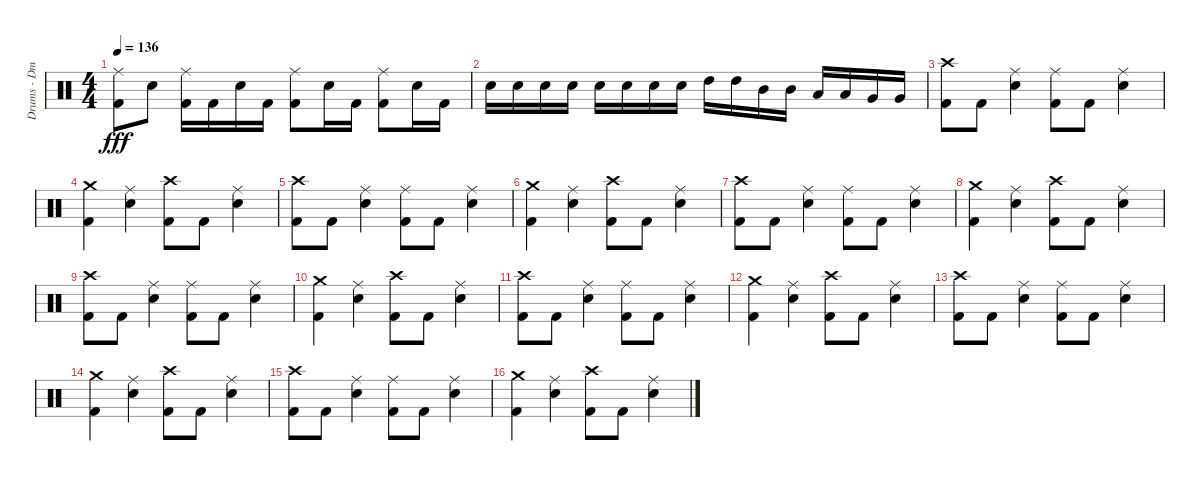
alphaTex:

\track ("Drums - Dmitriy Krivenkov" "Drums - Dm") {instrument percussion}
\staff {score}
\articulation defaults
\ts (4 4)
\tempo 136
\clef neutral
\ks c
("Ride (middle)" "Kick (hit) 2").8{dy fff} "Electric Snare (hit)".8 ("Ride (middle)" "Kick (hit) 2").16 "Kick (hit) 2".16 "Electric Snare (hit)".16 "Kick (hit) 2".16 ("Ride (middle)" "Kick (hit) 2").8 "Electric Snare (hit)".16 "Kick (hit) 2".16 ("Ride (middle)" "Kick (hit) 2").8 "Electric Snare (hit)".16 "Kick (hit) 2".16 |
"Electric Snare (hit)".16 "Electric Snare (hit)".16 "Electric Snare (hit)".16 "Electric Snare (hit)".16 "Electric Snare (hit)".16 "Electric Snare (hit)".16 "Electric Snare (hit)".16 "Electric Snare (hit)".16 "High Tom (hit)".16 "High Tom (hit)".16 "Mid Tom (hit)".16 "Mid Tom (hit)".16 "Low Tom (hit)".16 "Low Tom (hit)".16 "Very Low Tom (hit)".16 "Very Low Tom (hit)".16 |
("Crash high (hit)" "Kick (hit) 2").8 "Kick (hit) 2".8 ("Ride (middle)" "Electric Snare (hit)").4 ("Ride (middle)" "Kick (hit) 2").8 "Kick (hit) 2".8 ("Ride (middle)" "Electric Snare (hit)").4 |
("Crash medium (hit)" "Kick (hit) 2").4 ("Ride (middle)" "Electric Snare (hit)").4 ("Crash high (hit)" "Kick (hit) 2").8 "Kick (hit) 2".8 ("Ride (middle)" "Electric Snare (hit)").4 |
("Crash high (hit)" "Kick (hit) 2").8 "Kick (hit) 2".8 ("Ride (middle)" "Electric Snare (hit)").4 ("Ride (middle)" "Kick (hit) 2").8 "Kick (hit) 2".8 ("Ride (middle)" "Electric Snare (hit)").4 |
("Kick (hit) 2" "Crash medium (hit)").4 ("Electric Snare (hit)" "Ride (middle)").4 ("Kick (hit) 2" "Crash high (hit)").8 "Kick (hit) 2".8 ("Electric Snare (hit)" "Ride (middle)").4 |
("Crash high (hit)" "Kick (hit) 2").8 "Kick (hit) 2".8 ("Ride (middle)" "Electric Snare (hit)").4 ("Ride (middle)" "Kick (hit) 2").8 "Kick (hit) 2".8 ("Ride (middle)" "Electric Snare (hit)").4 |
("Crash medium (hit)" "Kick (hit) 2").4 ("Ride (middle)" "Electric Snare (hit)").4 ("Crash high (hit)" "Kick (hit) 2").8 "Kick (hit) 2".8 ("Ride (middle)" "Electric Snare (hit)").4 |
("Crash high (hit)" "Kick (hit) 2").8 "Kick (hit) 2".8 ("Ride (middle)" "Electric Snare (hit)").4 ("Ride (middle)" "Kick (hit) 2").8 "Kick (hit) 2".8 ("Ride (middle)" "Electric Snare (hit)").4 |
("Kick (hit) 2" "Crash medium (hit)").4 ("Electric Snare (hit)" "Ride (middle)").4 ("Kick (hit) 2" "Crash high (hit)").8 "Kick (hit) 2".8 ("Electric Snare (hit)" "Ride (middle)").4 |
("Crash high (hit)" "Kick (hit) 2").8 "Kick (hit) 2".8 ("Ride (middle)" "Electric Snare (hit)").4 ("Ride (middle)" "Kick (hit) 2").8 "Kick (hit) 2".8 ("Ride (middle)" "Electric Snare (hit)").4 |
("Crash medium (hit)" "Kick (hit) 2").4 ("Ride (middle)" "Electric Snare (hit)").4 ("Crash high (hit)" "Kick (hit) 2").8 "Kick (hit) 2".8 ("Ride (middle)" "Electric Snare (hit)").4 |
("Crash high (hit)" "Kick (hit) 2").8 "Kick (hit) 2".8 ("Ride (middle)" "Electric Snare (hit)").4 ("Ride (middle)" "Kick (hit) 2").8 "Kick (hit) 2".8 ("Ride (middle)" "Electric Snare (hit)").4 |
("Kick (hit) 2" "Crash medium (hit)").4 ("Electric Snare (hit)" "Ride (middle)").4 ("Kick (hit) 2" "Crash high (hit)").8 "Kick (hit) 2".8 ("Electric Snare (hit)" "Ride (middle)").4 |
("Crash high (hit)" "Kick (hit) 2").8 "Kick (hit) 2".8 ("Ride (middle)" "Electric Snare (hit)").4 ("Ride (middle)" "Kick (hit) 2").8 "Kick (hit) 2".8 ("Ride (middle)" "Electric Snare (hit)").4 |
("Crash medium (hit)" "Kick (hit) 2").4 ("Ride (middle)" "Electric Snare (hit)").4 ("Crash high (hit)" "Kick (hit) 2").8 "Kick (hit) 2".8 ("Ride (middle)" "Electric Snare (hit)").4
